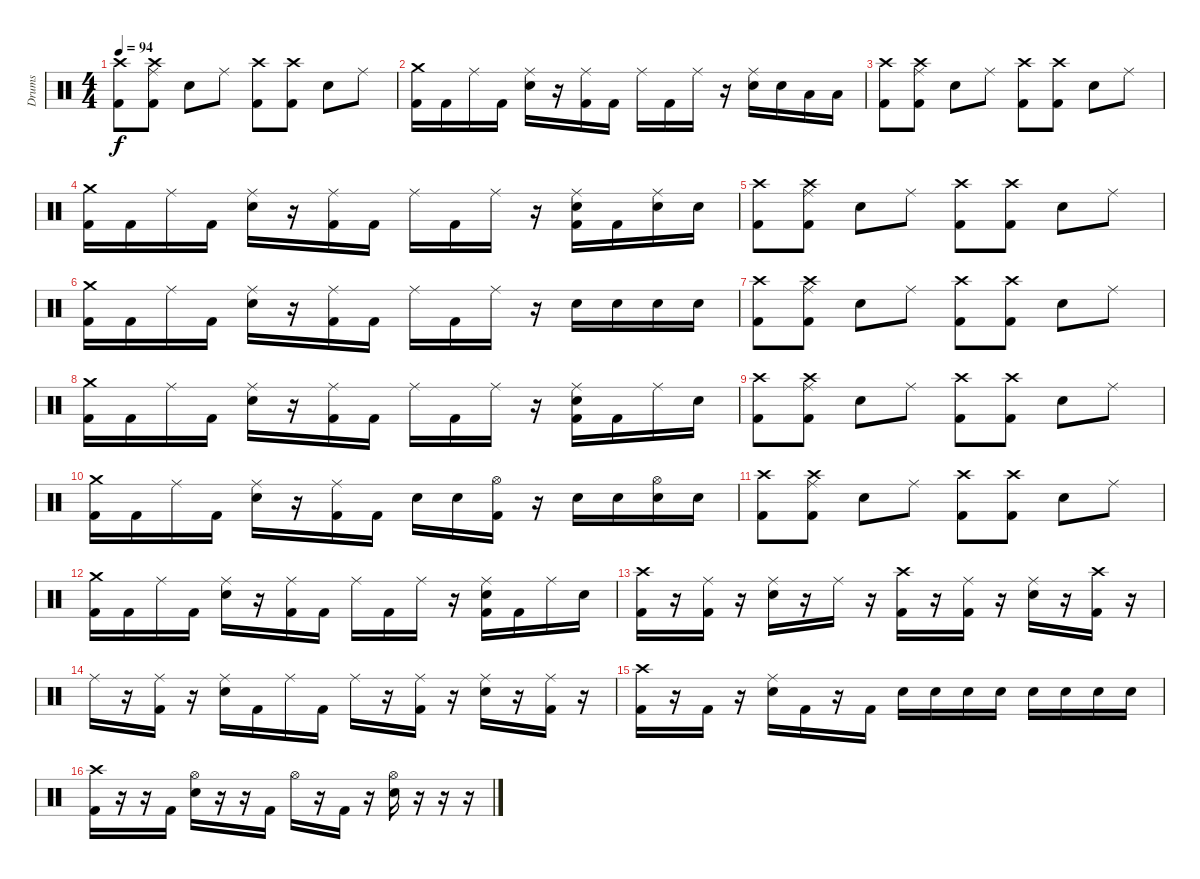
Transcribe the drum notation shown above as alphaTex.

\track ("Drums" "Drums") {instrument percussion}
\staff {score}
\articulation defaults
\ts (4 4)
\tempo 94
\clef neutral
\ks c
("Crash high (hit)" "Kick (hit) 2").8{dy f} ("Crash high (hit)" "Ride (middle)" "Kick (hit) 2").8 "Snare (hit) 2".8 "Ride (middle)".8 ("Crash high (hit)" "Kick (hit) 2").8 ("Crash high (hit)" "Kick (hit) 2").8 "Snare (hit) 2".8 "Ride (middle)".8 |
("Crash medium (hit)" "Kick (hit) 2").16 "Kick (hit) 2".16 "Ride (middle)".16 "Kick (hit) 2".16 ("Snare (hit) 2" "Ride (middle)").16 r.16 ("Ride (middle)" "Kick (hit) 2").16 "Kick (hit) 2".16 "Ride (middle)".16 "Kick (hit) 2".16 "Ride (middle)".16 r.16 ("Snare (hit) 2" "Ride (middle)").16 "Snare (hit) 2".16 "Low Tom (hit)".16 "Low Tom (hit)".16 |
("Crash high (hit)" "Kick (hit) 2").8 ("Crash high (hit)" "Ride (middle)" "Kick (hit) 2").8 "Snare (hit) 2".8 "Ride (middle)".8 ("Crash high (hit)" "Kick (hit) 2").8 ("Crash high (hit)" "Kick (hit) 2").8 "Snare (hit) 2".8 "Ride (middle)".8 |
("Crash medium (hit)" "Kick (hit) 2").16 "Kick (hit) 2".16 "Ride (middle)".16 "Kick (hit) 2".16 ("Snare (hit) 2" "Ride (middle)").16 r.16 ("Ride (middle)" "Kick (hit) 2").16 "Kick (hit) 2".16 "Ride (middle)".16 "Kick (hit) 2".16 "Ride (middle)".16 r.16 ("Snare (hit) 2" "Ride (middle)" "Kick (hit) 2").16 "Kick (hit) 2".16 ("Snare (hit) 2" "Ride (middle)").16 "Snare (hit) 2".16 |
("Crash high (hit)" "Kick (hit) 2").8 ("Crash high (hit)" "Ride (middle)" "Kick (hit) 2").8 "Snare (hit) 2".8 "Ride (middle)".8 ("Crash high (hit)" "Kick (hit) 2").8 ("Crash high (hit)" "Kick (hit) 2").8 "Snare (hit) 2".8 "Ride (middle)".8 |
("Crash medium (hit)" "Kick (hit) 2").16 "Kick (hit) 2".16 "Ride (middle)".16 "Kick (hit) 2".16 ("Snare (hit) 2" "Ride (middle)").16 r.16 ("Ride (middle)" "Kick (hit) 2").16 "Kick (hit) 2".16 "Ride (middle)".16 "Kick (hit) 2".16 "Ride (middle)".16 r.16 "Snare (hit) 2".16 "Snare (hit) 2".16 "Snare (hit) 2".16 "Snare (hit) 2".16 |
("Crash high (hit)" "Kick (hit) 2").8 ("Crash high (hit)" "Ride (middle)" "Kick (hit) 2").8 "Snare (hit) 2".8 "Ride (middle)".8 ("Crash high (hit)" "Kick (hit) 2").8 ("Crash high (hit)" "Kick (hit) 2").8 "Snare (hit) 2".8 "Ride (middle)".8 |
("Crash medium (hit)" "Kick (hit) 2").16 "Kick (hit) 2".16 "Ride (middle)".16 "Kick (hit) 2".16 ("Snare (hit) 2" "Ride (middle)").16 r.16 ("Ride (middle)" "Kick (hit) 2").16 "Kick (hit) 2".16 "Ride (middle)".16 "Kick (hit) 2".16 "Ride (middle)".16 r.16 ("Snare (hit) 2" "Ride (middle)" "Kick (hit) 2").16 "Kick (hit) 2".16 "Ride (middle)".16 "Snare (hit) 2".16 |
("Crash high (hit)" "Kick (hit) 2").8 ("Crash high (hit)" "Ride (middle)" "Kick (hit) 2").8 "Snare (hit) 2".8 "Ride (middle)".8 ("Crash high (hit)" "Kick (hit) 2").8 ("Crash high (hit)" "Kick (hit) 2").8 "Snare (hit) 2".8 "Ride (middle)".8 |
("Crash medium (hit)" "Kick (hit) 2").16 "Kick (hit) 2".16 "Ride (middle)".16 "Kick (hit) 2".16 ("Snare (hit) 2" "Ride (middle)").16 r.16 ("Ride (middle)" "Kick (hit) 2").16 "Kick (hit) 2".16 "Snare (hit) 2".16 "Snare (hit) 2".16 ("Hi-Hat (open)" "Kick (hit) 2").16 r.16 "Snare (hit) 2".16 "Snare (hit) 2".16 ("Snare (hit) 2" "Hi-Hat (open)").16 "Snare (hit) 2".16 |
("Crash high (hit)" "Kick (hit) 2").8 ("Crash high (hit)" "Ride (middle)" "Kick (hit) 2").8 "Snare (hit) 2".8 "Ride (middle)".8 ("Crash high (hit)" "Kick (hit) 2").8 ("Crash high (hit)" "Kick (hit) 2").8 "Snare (hit) 2".8 "Ride (middle)".8 |
("Crash medium (hit)" "Kick (hit) 2").16 "Kick (hit) 2".16 "Ride (middle)".16 "Kick (hit) 2".16 ("Snare (hit) 2" "Ride (middle)").16 r.16 ("Ride (middle)" "Kick (hit) 2").16 "Kick (hit) 2".16 "Ride (middle)".16 "Kick (hit) 2".16 "Ride (middle)".16 r.16 ("Snare (hit) 2" "Ride (middle)" "Kick (hit) 2").16 "Kick (hit) 2".16 "Ride (middle)".16 "Snare (hit) 2".16 |
("Crash high (hit)" "Kick (hit) 2").16 r.16 ("Ride (middle)" "Kick (hit) 2").16 r.16 ("Snare (hit) 2" "Ride (middle)").16 r.16 "Ride (middle)".16 r.16 ("Crash high (hit)" "Kick (hit) 2").16 r.16 ("Ride (middle)" "Kick (hit) 2").16 r.16 ("Snare (hit) 2" "Ride (middle)").16 r.16 ("Crash high (hit)" "Kick (hit) 2").16 r.16 |
"Ride (middle)".16 r.16 ("Ride (middle)" "Kick (hit) 2").16 r.16 ("Ride (middle)" "Snare (hit) 2").16 "Kick (hit) 2".16 "Ride (middle)".16 "Kick (hit) 2".16 "Ride (middle)".16 r.16 ("Ride (middle)" "Kick (hit) 2").16 r.16 ("Ride (middle)" "Snare (hit) 2").16 r.16 ("Ride (middle)" "Kick (hit) 2").16 r.16 |
("Crash high (hit)" "Kick (hit) 2").16 r.16 "Kick (hit) 2".16 r.16 ("Ride (middle)" "Snare (hit) 2").16 "Kick (hit) 2".16 r.16 "Kick (hit) 2".16 "Snare (hit) 2".16 "Snare (hit) 2".16 "Snare (hit) 2".16 "Snare (hit) 2".16 "Snare (hit) 2".16 "Snare (hit) 2".16 "Snare (hit) 2".16 "Snare (hit) 2".16 |
("Crash high (hit)" "Kick (hit) 2").16 r.16 r.16 "Kick (hit) 2".16 ("Hi-Hat (open)" "Snare (hit) 2").16 r.16 r.16 "Kick (hit) 2".16 "Hi-Hat (open)".16 r.16 "Kick (hit) 2".16 r.16 ("Hi-Hat (open)" "Snare (hit) 2").16 r.16 r.16 r.16
